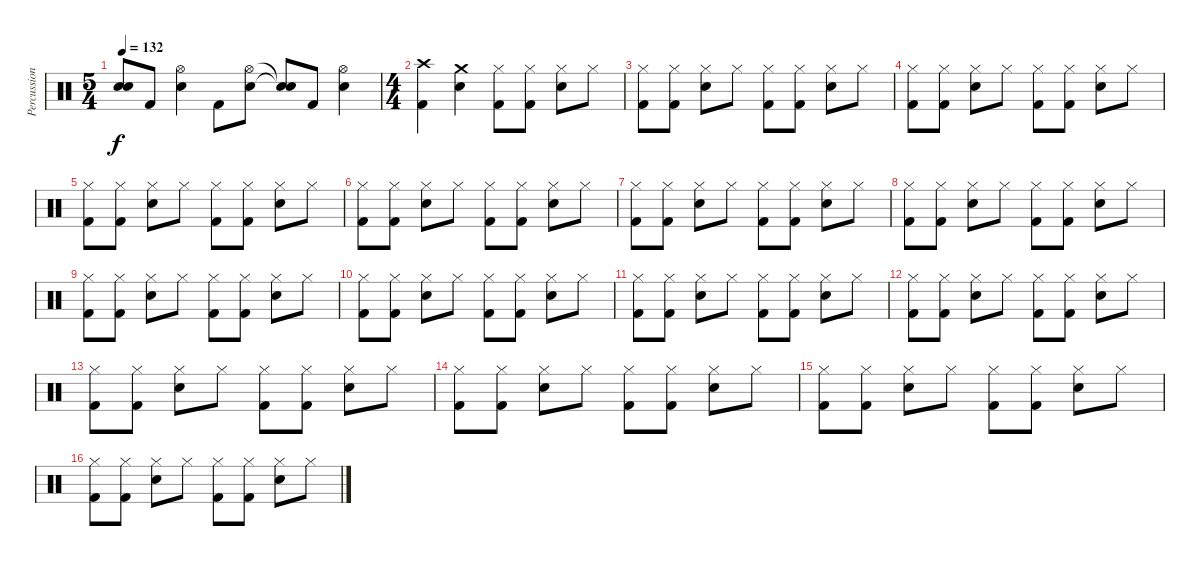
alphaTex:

\track ("Percussion" "Percussion") {instrument percussion}
\staff {score}
\articulation defaults
\ts (5 4)
\tempo 132
\clef neutral
\ks c
("Snare (hit)"{t} "Snare (hit)"{t}).8{dy f} "Kick (hit) 2".8 ("Hi-Hat (open)" "Metronome (bell)").4 "Kick (hit) 2".8 ("Hi-Hat (open)" "Metronome (bell)").8 ("Snare (hit)"{t} "Snare (hit)"{t}).8 "Kick (hit) 2".8 ("Hi-Hat (open)" "Metronome (bell)").4 |
\ts (4 4)
("Crash high (hit)" "Kick (hit) 2").4 ("Crash medium (hit)" "Metronome (bell)").4 ("Hi-Hat (closed)" "Kick (hit) 2").8 ("Hi-Hat (closed)" "Kick (hit) 2").8 ("Hi-Hat (closed)" "Metronome (bell)").8 "Hi-Hat (closed)".8 |
("Hi-Hat (closed)" "Kick (hit) 2").8 ("Hi-Hat (closed)" "Kick (hit) 2").8 ("Hi-Hat (closed)" "Metronome (bell)").8 "Hi-Hat (closed)".8 ("Hi-Hat (closed)" "Kick (hit) 2").8 ("Hi-Hat (closed)" "Kick (hit) 2").8 ("Hi-Hat (closed)" "Metronome (bell)").8 "Hi-Hat (closed)".8 |
("Hi-Hat (closed)" "Kick (hit) 2").8 ("Hi-Hat (closed)" "Kick (hit) 2").8 ("Hi-Hat (closed)" "Metronome (bell)").8 "Hi-Hat (closed)".8 ("Hi-Hat (closed)" "Kick (hit) 2").8 ("Hi-Hat (closed)" "Kick (hit) 2").8 ("Hi-Hat (closed)" "Metronome (bell)").8 "Hi-Hat (closed)".8 |
("Hi-Hat (closed)" "Kick (hit) 2").8 ("Hi-Hat (closed)" "Kick (hit) 2").8 ("Hi-Hat (closed)" "Metronome (bell)").8 "Hi-Hat (closed)".8 ("Hi-Hat (closed)" "Kick (hit) 2").8 ("Hi-Hat (closed)" "Kick (hit) 2").8 ("Hi-Hat (closed)" "Metronome (bell)").8 "Hi-Hat (closed)".8 |
("Hi-Hat (closed)" "Kick (hit) 2").8 ("Hi-Hat (closed)" "Kick (hit) 2").8 ("Hi-Hat (closed)" "Metronome (bell)").8 "Hi-Hat (closed)".8 ("Hi-Hat (closed)" "Kick (hit) 2").8 ("Hi-Hat (closed)" "Kick (hit) 2").8 ("Hi-Hat (closed)" "Metronome (bell)").8 "Hi-Hat (closed)".8 |
("Hi-Hat (closed)" "Kick (hit) 2").8 ("Hi-Hat (closed)" "Kick (hit) 2").8 ("Hi-Hat (closed)" "Metronome (bell)").8 "Hi-Hat (closed)".8 ("Hi-Hat (closed)" "Kick (hit) 2").8 ("Hi-Hat (closed)" "Kick (hit) 2").8 ("Hi-Hat (closed)" "Metronome (bell)").8 "Hi-Hat (closed)".8 |
("Hi-Hat (closed)" "Kick (hit) 2").8 ("Hi-Hat (closed)" "Kick (hit) 2").8 ("Hi-Hat (closed)" "Metronome (bell)").8 "Hi-Hat (closed)".8 ("Hi-Hat (closed)" "Kick (hit) 2").8 ("Hi-Hat (closed)" "Kick (hit) 2").8 ("Hi-Hat (closed)" "Metronome (bell)").8 "Hi-Hat (closed)".8 |
("Hi-Hat (closed)" "Kick (hit) 2").8 ("Hi-Hat (closed)" "Kick (hit) 2").8 ("Hi-Hat (closed)" "Metronome (bell)").8 "Hi-Hat (closed)".8 ("Hi-Hat (closed)" "Kick (hit) 2").8 ("Hi-Hat (closed)" "Kick (hit) 2").8 ("Hi-Hat (closed)" "Metronome (bell)").8 "Hi-Hat (closed)".8 |
("Hi-Hat (closed)" "Kick (hit) 2").8 ("Hi-Hat (closed)" "Kick (hit) 2").8 ("Hi-Hat (closed)" "Metronome (bell)").8 "Hi-Hat (closed)".8 ("Hi-Hat (closed)" "Kick (hit) 2").8 ("Hi-Hat (closed)" "Kick (hit) 2").8 ("Hi-Hat (closed)" "Metronome (bell)").8 "Hi-Hat (closed)".8 |
("Hi-Hat (closed)" "Kick (hit) 2").8 ("Hi-Hat (closed)" "Kick (hit) 2").8 ("Hi-Hat (closed)" "Metronome (bell)").8 "Hi-Hat (closed)".8 ("Hi-Hat (closed)" "Kick (hit) 2").8 ("Hi-Hat (closed)" "Kick (hit) 2").8 ("Hi-Hat (closed)" "Metronome (bell)").8 "Hi-Hat (closed)".8 |
("Hi-Hat (closed)" "Kick (hit) 2").8 ("Hi-Hat (closed)" "Kick (hit) 2").8 ("Hi-Hat (closed)" "Metronome (bell)").8 "Hi-Hat (closed)".8 ("Hi-Hat (closed)" "Kick (hit) 2").8 ("Hi-Hat (closed)" "Kick (hit) 2").8 ("Hi-Hat (closed)" "Metronome (bell)").8 "Hi-Hat (closed)".8 |
("Hi-Hat (closed)" "Kick (hit) 2").8 ("Hi-Hat (closed)" "Kick (hit) 2").8 ("Hi-Hat (closed)" "Metronome (bell)").8 "Hi-Hat (closed)".8 ("Hi-Hat (closed)" "Kick (hit) 2").8 ("Hi-Hat (closed)" "Kick (hit) 2").8 ("Hi-Hat (closed)" "Metronome (bell)").8 "Hi-Hat (closed)".8 |
("Hi-Hat (closed)" "Kick (hit) 2").8 ("Hi-Hat (closed)" "Kick (hit) 2").8 ("Hi-Hat (closed)" "Metronome (bell)").8 "Hi-Hat (closed)".8 ("Hi-Hat (closed)" "Kick (hit) 2").8 ("Hi-Hat (closed)" "Kick (hit) 2").8 ("Hi-Hat (closed)" "Metronome (bell)").8 "Hi-Hat (closed)".8 |
("Hi-Hat (closed)" "Kick (hit) 2").8 ("Hi-Hat (closed)" "Kick (hit) 2").8 ("Hi-Hat (closed)" "Metronome (bell)").8 "Hi-Hat (closed)".8 ("Hi-Hat (closed)" "Kick (hit) 2").8 ("Hi-Hat (closed)" "Kick (hit) 2").8 ("Hi-Hat (closed)" "Metronome (bell)").8 "Hi-Hat (closed)".8 |
("Hi-Hat (closed)" "Kick (hit) 2").8 ("Hi-Hat (closed)" "Kick (hit) 2").8 ("Hi-Hat (closed)" "Metronome (bell)").8 "Hi-Hat (closed)".8 ("Hi-Hat (closed)" "Kick (hit) 2").8 ("Hi-Hat (closed)" "Kick (hit) 2").8 ("Hi-Hat (closed)" "Metronome (bell)").8 "Hi-Hat (closed)".8
